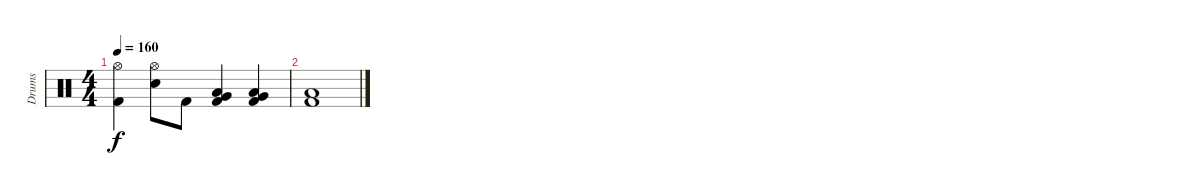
\track ("Drums" "Drums") {instrument percussion}
\staff {score}
\articulation defaults
\ts (4 4)
\tempo 160
\clef neutral
\ks c
("Hi-Hat (open)" "Kick (hit) 2").4{dy f} ("Hi-Hat (open)" "Electric Snare (hit)").8 "Kick (hit) 2".8 ("Low Floor Tom (hit)" "Very Low Tom (hit)" "Kick (hit) 2").4 ("Low Floor Tom (hit)" "Very Low Tom (hit)" "Kick (hit) 2").4 |
("Low Floor Tom (hit)" "Kick (hit) 2").1
